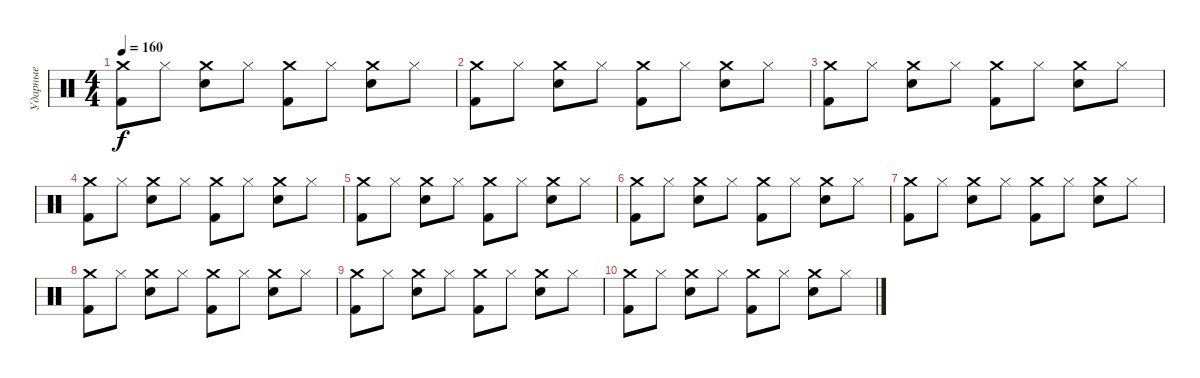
\track ("Ударные" "Ударные") {instrument percussion}
\staff {score}
\articulation defaults
\ts (4 4)
\tempo 160
\clef neutral
\ks c
("Crash medium (hit)" "Kick (hit) 2").8{dy f} "Hi-Hat (closed)".8 ("Crash medium (hit)" "Snare (hit) 2").8 "Hi-Hat (closed)".8 ("Crash medium (hit)" "Kick (hit) 2").8 "Hi-Hat (closed)".8 ("Crash medium (hit)" "Snare (hit) 2").8 "Hi-Hat (closed)".8 |
("Crash medium (hit)" "Kick (hit) 2").8 "Hi-Hat (closed)".8 ("Crash medium (hit)" "Snare (hit) 2").8 "Hi-Hat (closed)".8 ("Crash medium (hit)" "Kick (hit) 2").8 "Hi-Hat (closed)".8 ("Crash medium (hit)" "Snare (hit) 2").8 "Hi-Hat (closed)".8 |
("Crash medium (hit)" "Kick (hit) 2").8 "Hi-Hat (closed)".8 ("Crash medium (hit)" "Snare (hit) 2").8 "Hi-Hat (closed)".8 ("Crash medium (hit)" "Kick (hit) 2").8 "Hi-Hat (closed)".8 ("Crash medium (hit)" "Snare (hit) 2").8 "Hi-Hat (closed)".8 |
("Crash medium (hit)" "Kick (hit) 2").8 "Hi-Hat (closed)".8 ("Crash medium (hit)" "Snare (hit) 2").8 "Hi-Hat (closed)".8 ("Crash medium (hit)" "Kick (hit) 2").8 "Hi-Hat (closed)".8 ("Crash medium (hit)" "Snare (hit) 2").8 "Hi-Hat (closed)".8 |
("Crash medium (hit)" "Kick (hit) 2").8 "Hi-Hat (closed)".8 ("Crash medium (hit)" "Snare (hit) 2").8 "Hi-Hat (closed)".8 ("Crash medium (hit)" "Kick (hit) 2").8 "Hi-Hat (closed)".8 ("Crash medium (hit)" "Snare (hit) 2").8 "Hi-Hat (closed)".8 |
("Crash medium (hit)" "Kick (hit) 2").8 "Hi-Hat (closed)".8 ("Crash medium (hit)" "Snare (hit) 2").8 "Hi-Hat (closed)".8 ("Crash medium (hit)" "Kick (hit) 2").8 "Hi-Hat (closed)".8 ("Crash medium (hit)" "Snare (hit) 2").8 "Hi-Hat (closed)".8 |
("Crash medium (hit)" "Kick (hit) 2").8 "Hi-Hat (closed)".8 ("Crash medium (hit)" "Snare (hit) 2").8 "Hi-Hat (closed)".8 ("Crash medium (hit)" "Kick (hit) 2").8 "Hi-Hat (closed)".8 ("Crash medium (hit)" "Snare (hit) 2").8 "Hi-Hat (closed)".8 |
("Crash medium (hit)" "Kick (hit) 2").8 "Hi-Hat (closed)".8 ("Crash medium (hit)" "Snare (hit) 2").8 "Hi-Hat (closed)".8 ("Crash medium (hit)" "Kick (hit) 2").8 "Hi-Hat (closed)".8 ("Crash medium (hit)" "Snare (hit) 2").8 "Hi-Hat (closed)".8 |
("Crash medium (hit)" "Kick (hit) 2").8 "Hi-Hat (closed)".8 ("Crash medium (hit)" "Snare (hit) 2").8 "Hi-Hat (closed)".8 ("Crash medium (hit)" "Kick (hit) 2").8 "Hi-Hat (closed)".8 ("Crash medium (hit)" "Snare (hit) 2").8 "Hi-Hat (closed)".8 |
("Crash medium (hit)" "Kick (hit) 2").8 "Hi-Hat (closed)".8 ("Crash medium (hit)" "Snare (hit) 2").8 "Hi-Hat (closed)".8 ("Crash medium (hit)" "Kick (hit) 2").8 "Hi-Hat (closed)".8 ("Crash medium (hit)" "Snare (hit) 2").8 "Hi-Hat (closed)".8
